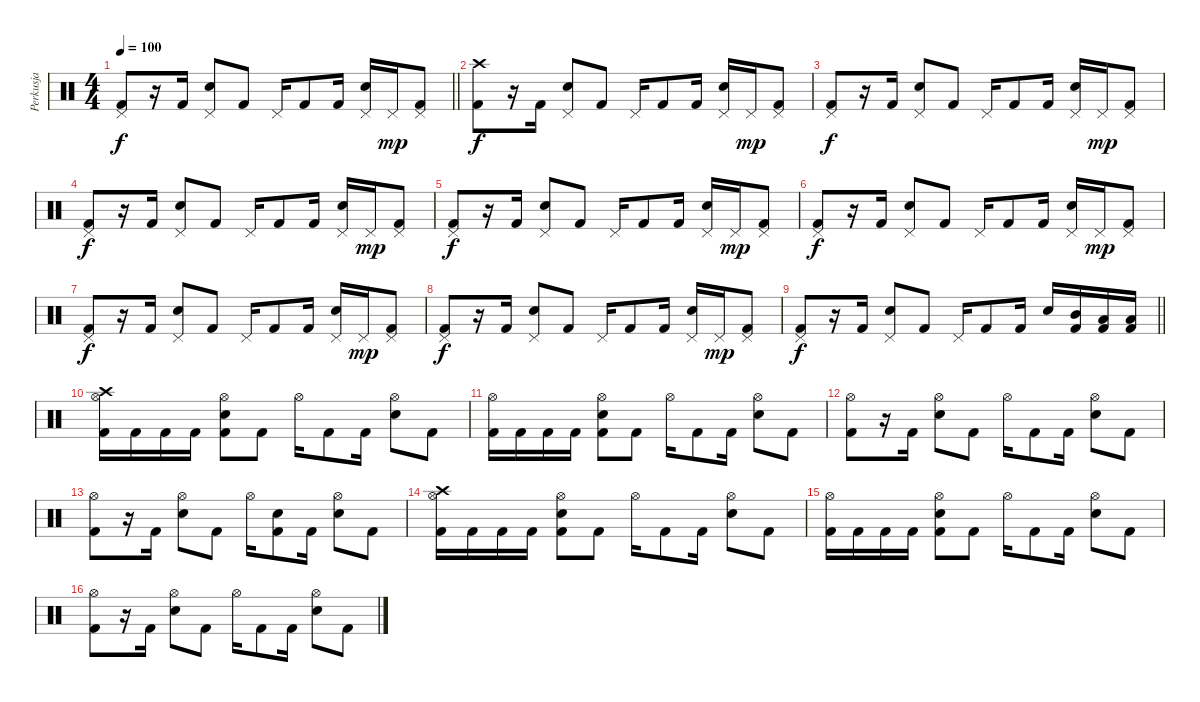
\track ("Perkusja" "Perkusja") {instrument percussion}
\staff {score}
\articulation defaults
\ts (4 4)
\tempo 100
\clef neutral
\barLineRight lightlight
\ks c
("Pedal Hi-Hat (hit)" "Kick (hit) 2").8{dy f} r.16 "Kick (hit) 2".16 ("Pedal Hi-Hat (hit)" "Snare (hit) 2").8 "Kick (hit) 2".8 "Pedal Hi-Hat (hit)".16 "Kick (hit) 2".8 "Kick (hit) 2".16 ("Pedal Hi-Hat (hit)" "Snare (hit) 2").16 "Pedal Hi-Hat (hit)".16{dy mp} ("Pedal Hi-Hat (hit)" "Kick (hit) 2").8 |
("Crash high (hit)" "Kick (hit) 2").8{dy f} r.16 "Kick (hit) 2".16 ("Pedal Hi-Hat (hit)" "Snare (hit) 2").8 "Kick (hit) 2".8 "Pedal Hi-Hat (hit)".16 "Kick (hit) 2".8 "Kick (hit) 2".16 ("Pedal Hi-Hat (hit)" "Snare (hit) 2").16 "Pedal Hi-Hat (hit)".16{dy mp} ("Pedal Hi-Hat (hit)" "Kick (hit) 2").8 |
("Pedal Hi-Hat (hit)" "Kick (hit) 2").8{dy f} r.16 "Kick (hit) 2".16 ("Pedal Hi-Hat (hit)" "Snare (hit) 2").8 "Kick (hit) 2".8 "Pedal Hi-Hat (hit)".16 "Kick (hit) 2".8 "Kick (hit) 2".16 ("Pedal Hi-Hat (hit)" "Snare (hit) 2").16 "Pedal Hi-Hat (hit)".16{dy mp} ("Pedal Hi-Hat (hit)" "Kick (hit) 2").8 |
("Pedal Hi-Hat (hit)" "Kick (hit) 2").8{dy f} r.16 "Kick (hit) 2".16 ("Pedal Hi-Hat (hit)" "Snare (hit) 2").8 "Kick (hit) 2".8 "Pedal Hi-Hat (hit)".16 "Kick (hit) 2".8 "Kick (hit) 2".16 ("Pedal Hi-Hat (hit)" "Snare (hit) 2").16 "Pedal Hi-Hat (hit)".16{dy mp} ("Pedal Hi-Hat (hit)" "Kick (hit) 2").8 |
("Pedal Hi-Hat (hit)" "Kick (hit) 2").8{dy f} r.16 "Kick (hit) 2".16 ("Pedal Hi-Hat (hit)" "Snare (hit) 2").8 "Kick (hit) 2".8 "Pedal Hi-Hat (hit)".16 "Kick (hit) 2".8 "Kick (hit) 2".16 ("Pedal Hi-Hat (hit)" "Snare (hit) 2").16 "Pedal Hi-Hat (hit)".16{dy mp} ("Pedal Hi-Hat (hit)" "Kick (hit) 2").8 |
("Pedal Hi-Hat (hit)" "Kick (hit) 2").8{dy f} r.16 "Kick (hit) 2".16 ("Pedal Hi-Hat (hit)" "Snare (hit) 2").8 "Kick (hit) 2".8 "Pedal Hi-Hat (hit)".16 "Kick (hit) 2".8 "Kick (hit) 2".16 ("Pedal Hi-Hat (hit)" "Snare (hit) 2").16 "Pedal Hi-Hat (hit)".16{dy mp} ("Pedal Hi-Hat (hit)" "Kick (hit) 2").8 |
("Pedal Hi-Hat (hit)" "Kick (hit) 2").8{dy f} r.16 "Kick (hit) 2".16 ("Pedal Hi-Hat (hit)" "Snare (hit) 2").8 "Kick (hit) 2".8 "Pedal Hi-Hat (hit)".16 "Kick (hit) 2".8 "Kick (hit) 2".16 ("Pedal Hi-Hat (hit)" "Snare (hit) 2").16 "Pedal Hi-Hat (hit)".16{dy mp} ("Pedal Hi-Hat (hit)" "Kick (hit) 2").8 |
("Pedal Hi-Hat (hit)" "Kick (hit) 2").8{dy f} r.16 "Kick (hit) 2".16 ("Pedal Hi-Hat (hit)" "Snare (hit) 2").8 "Kick (hit) 2".8 "Pedal Hi-Hat (hit)".16 "Kick (hit) 2".8 "Kick (hit) 2".16 ("Pedal Hi-Hat (hit)" "Snare (hit) 2").16 "Pedal Hi-Hat (hit)".16{dy mp} ("Pedal Hi-Hat (hit)" "Kick (hit) 2").8 |
\barLineRight lightlight
("Pedal Hi-Hat (hit)" "Kick (hit) 2").8{dy f} r.16 "Kick (hit) 2".16 ("Pedal Hi-Hat (hit)" "Snare (hit) 2").8 "Kick (hit) 2".8 "Pedal Hi-Hat (hit)".16 "Kick (hit) 2".8 "Kick (hit) 2".16 "Snare (hit) 2".16 ("Mid Tom (hit)" "Kick (hit) 2").16 ("Low Tom (hit)" "Kick (hit) 2").16 ("Low Tom (hit)" "Kick (hit) 2").16 |
("Crash high (hit)" "Hi-Hat (open)" "Kick (hit) 2").16 "Kick (hit) 2".16 "Kick (hit) 2".16 "Kick (hit) 2".16 ("Hi-Hat (open)" "Snare (hit) 2" "Kick (hit) 2").8 "Kick (hit) 2".8 "Hi-Hat (open)".16 "Kick (hit) 2".8 "Kick (hit) 2".16 ("Hi-Hat (open)" "Snare (hit) 2").8 "Kick (hit) 2".8 |
("Hi-Hat (open)" "Kick (hit) 2").16 "Kick (hit) 2".16 "Kick (hit) 2".16 "Kick (hit) 2".16 ("Hi-Hat (open)" "Snare (hit) 2" "Kick (hit) 2").8 "Kick (hit) 2".8 "Hi-Hat (open)".16 "Kick (hit) 2".8 "Kick (hit) 2".16 ("Hi-Hat (open)" "Snare (hit) 2").8 "Kick (hit) 2".8 |
("Hi-Hat (open)" "Kick (hit) 2").8 r.16 "Kick (hit) 2".16 ("Hi-Hat (open)" "Snare (hit) 2").8 "Kick (hit) 2".8 "Hi-Hat (open)".16 "Kick (hit) 2".8 "Kick (hit) 2".16 ("Hi-Hat (open)" "Snare (hit) 2").8 "Kick (hit) 2".8 |
("Hi-Hat (open)" "Kick (hit) 2").8 r.16 "Kick (hit) 2".16 ("Hi-Hat (open)" "Snare (hit) 2").8 "Kick (hit) 2".8 "Hi-Hat (open)".16 ("Snare (hit) 2" "Kick (hit) 2").8 "Kick (hit) 2".16 ("Hi-Hat (open)" "Snare (hit) 2").8 "Kick (hit) 2".8 |
("Crash high (hit)" "Hi-Hat (open)" "Kick (hit) 2").16 "Kick (hit) 2".16 "Kick (hit) 2".16 "Kick (hit) 2".16 ("Hi-Hat (open)" "Snare (hit) 2" "Kick (hit) 2").8 "Kick (hit) 2".8 "Hi-Hat (open)".16 "Kick (hit) 2".8 "Kick (hit) 2".16 ("Hi-Hat (open)" "Snare (hit) 2").8 "Kick (hit) 2".8 |
("Hi-Hat (open)" "Kick (hit) 2").16 "Kick (hit) 2".16 "Kick (hit) 2".16 "Kick (hit) 2".16 ("Hi-Hat (open)" "Snare (hit) 2" "Kick (hit) 2").8 "Kick (hit) 2".8 "Hi-Hat (open)".16 "Kick (hit) 2".8 "Kick (hit) 2".16 ("Hi-Hat (open)" "Snare (hit) 2").8 "Kick (hit) 2".8 |
("Hi-Hat (open)" "Kick (hit) 2").8 r.16 "Kick (hit) 2".16 ("Hi-Hat (open)" "Snare (hit) 2").8 "Kick (hit) 2".8 "Hi-Hat (open)".16 "Kick (hit) 2".8 "Kick (hit) 2".16 ("Hi-Hat (open)" "Snare (hit) 2").8 "Kick (hit) 2".8
